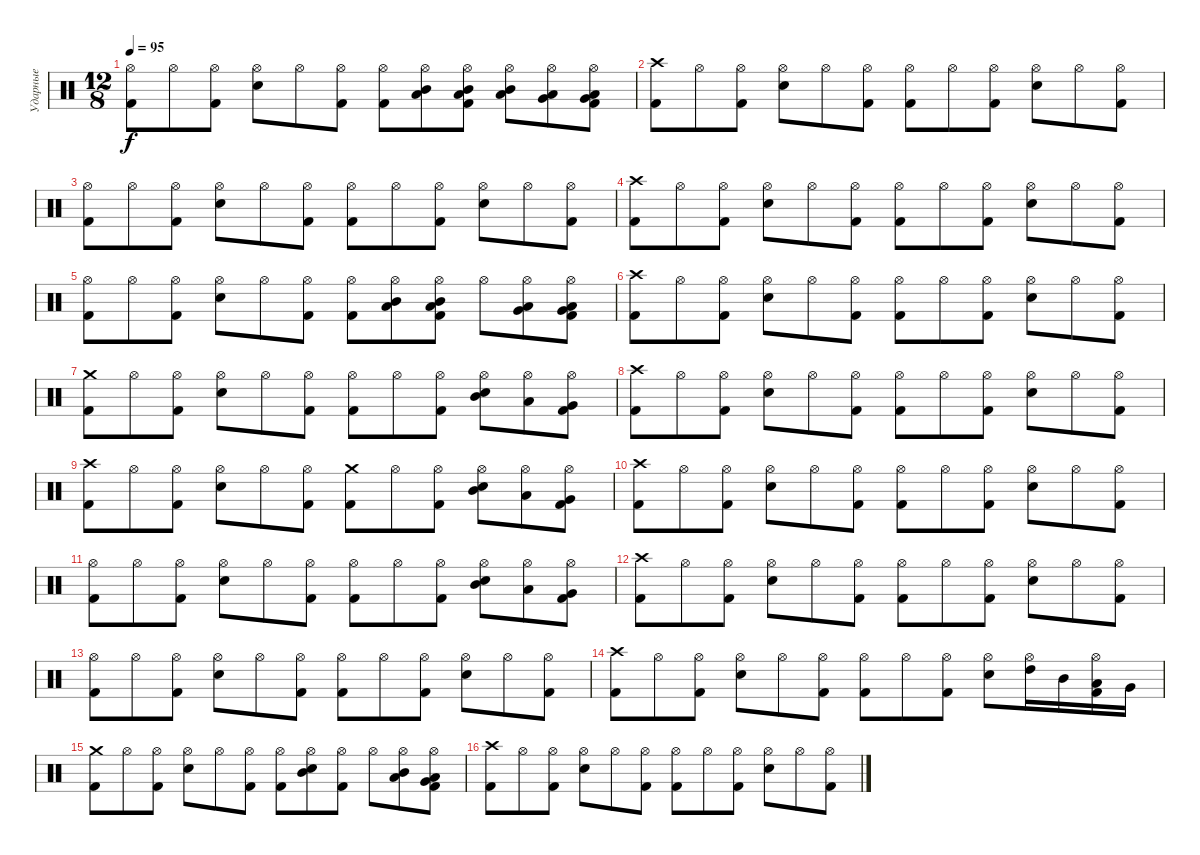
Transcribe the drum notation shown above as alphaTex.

\track ("Ударные" "Ударные") {instrument percussion}
\staff {score}
\articulation defaults
\ts (12 8)
\tempo 95
\clef neutral
\ks c
("Hi-Hat (open)" "Kick (hit) 2").8{dy f} "Hi-Hat (open)".8 ("Hi-Hat (open)" "Kick (hit) 2").8 ("Hi-Hat (open)" "Electric Snare (hit)").8 "Hi-Hat (open)".8 ("Hi-Hat (open)" "Kick (hit) 2").8 ("Hi-Hat (open)" "Kick (hit) 2").8 ("Hi-Hat (open)" "Mid Tom (hit)" "Low Tom (hit)").8 ("Hi-Hat (open)" "Mid Tom (hit)" "Low Tom (hit)" "Kick (hit) 2").8 ("Hi-Hat (open)" "Mid Tom (hit)" "Low Tom (hit)").8 ("Hi-Hat (open)" "Low Tom (hit)" "Very Low Tom (hit)").8 ("Hi-Hat (open)" "Very Low Tom (hit)" "Low Floor Tom (hit)" "Kick (hit) 2").8 |
("Crash high (hit)" "Kick (hit) 2").8 "Hi-Hat (open)".8 ("Hi-Hat (open)" "Kick (hit) 2").8 ("Hi-Hat (open)" "Electric Snare (hit)").8 "Hi-Hat (open)".8 ("Hi-Hat (open)" "Kick (hit) 2").8 ("Hi-Hat (open)" "Kick (hit) 2").8 "Hi-Hat (open)".8 ("Hi-Hat (open)" "Kick (hit) 2").8 ("Hi-Hat (open)" "Electric Snare (hit)").8 "Hi-Hat (open)".8 ("Hi-Hat (open)" "Kick (hit) 2").8 |
("Hi-Hat (open)" "Kick (hit) 2").8 "Hi-Hat (open)".8 ("Hi-Hat (open)" "Kick (hit) 2").8 ("Hi-Hat (open)" "Electric Snare (hit)").8 "Hi-Hat (open)".8 ("Hi-Hat (open)" "Kick (hit) 2").8 ("Hi-Hat (open)" "Kick (hit) 2").8 "Hi-Hat (open)".8 ("Hi-Hat (open)" "Kick (hit) 2").8 ("Hi-Hat (open)" "Electric Snare (hit)").8 "Hi-Hat (open)".8 ("Hi-Hat (open)" "Kick (hit) 2").8 |
("Crash high (hit)" "Kick (hit) 2").8 "Hi-Hat (open)".8 ("Hi-Hat (open)" "Kick (hit) 2").8 ("Hi-Hat (open)" "Electric Snare (hit)").8 "Hi-Hat (open)".8 ("Hi-Hat (open)" "Kick (hit) 2").8 ("Hi-Hat (open)" "Kick (hit) 2").8 "Hi-Hat (open)".8 ("Hi-Hat (open)" "Kick (hit) 2").8 ("Hi-Hat (open)" "Electric Snare (hit)").8 "Hi-Hat (open)".8 ("Hi-Hat (open)" "Kick (hit) 2").8 |
("Hi-Hat (open)" "Kick (hit) 2").8 "Hi-Hat (open)".8 ("Hi-Hat (open)" "Kick (hit) 2").8 ("Hi-Hat (open)" "Electric Snare (hit)").8 "Hi-Hat (open)".8 ("Hi-Hat (open)" "Kick (hit) 2").8 ("Hi-Hat (open)" "Kick (hit) 2").8 ("Hi-Hat (open)" "Mid Tom (hit)" "Low Tom (hit)").8 ("Hi-Hat (open)" "Mid Tom (hit)" "Low Tom (hit)" "Kick (hit) 2").8 "Hi-Hat (open)".8 ("Hi-Hat (open)" "Low Tom (hit)" "Very Low Tom (hit)").8 ("Hi-Hat (open)" "Very Low Tom (hit)" "Low Floor Tom (hit)" "Kick (hit) 2").8 |
("Crash high (hit)" "Kick (hit) 2").8 "Hi-Hat (open)".8 ("Hi-Hat (open)" "Kick (hit) 2").8 ("Hi-Hat (open)" "Electric Snare (hit)").8 "Hi-Hat (open)".8 ("Hi-Hat (open)" "Kick (hit) 2").8 ("Hi-Hat (open)" "Kick (hit) 2").8 "Hi-Hat (open)".8 ("Hi-Hat (open)" "Kick (hit) 2").8 ("Hi-Hat (open)" "Electric Snare (hit)").8 "Hi-Hat (open)".8 ("Hi-Hat (open)" "Kick (hit) 2").8 |
("Crash medium (hit)" "Kick (hit) 2").8 "Hi-Hat (open)".8 ("Hi-Hat (open)" "Kick (hit) 2").8 ("Hi-Hat (open)" "Electric Snare (hit)").8 "Hi-Hat (open)".8 ("Hi-Hat (open)" "Kick (hit) 2").8 ("Hi-Hat (open)" "Kick (hit) 2").8 "Hi-Hat (open)".8 ("Hi-Hat (open)" "Kick (hit) 2").8 ("Hi-Hat (open)" "Mid Tom (hit)" "Electric Snare (hit)").8 ("Hi-Hat (open)" "Low Tom (hit)").8 ("Hi-Hat (open)" "Very Low Tom (hit)" "Kick (hit) 2").8 |
("Crash high (hit)" "Kick (hit) 2").8 "Hi-Hat (open)".8 ("Hi-Hat (open)" "Kick (hit) 2").8 ("Hi-Hat (open)" "Electric Snare (hit)").8 "Hi-Hat (open)".8 ("Hi-Hat (open)" "Kick (hit) 2").8 ("Hi-Hat (open)" "Kick (hit) 2").8 "Hi-Hat (open)".8 ("Hi-Hat (open)" "Kick (hit) 2").8 ("Hi-Hat (open)" "Electric Snare (hit)").8 "Hi-Hat (open)".8 ("Hi-Hat (open)" "Kick (hit) 2").8 |
("Crash high (hit)" "Kick (hit) 2").8 "Hi-Hat (open)".8 ("Hi-Hat (open)" "Kick (hit) 2").8 ("Hi-Hat (open)" "Electric Snare (hit)").8 "Hi-Hat (open)".8 ("Hi-Hat (open)" "Kick (hit) 2").8 ("Crash medium (hit)" "Kick (hit) 2").8 "Hi-Hat (open)".8 ("Hi-Hat (open)" "Kick (hit) 2").8 ("Hi-Hat (open)" "Mid Tom (hit)" "Electric Snare (hit)").8 ("Hi-Hat (open)" "Low Tom (hit)").8 ("Hi-Hat (open)" "Very Low Tom (hit)" "Kick (hit) 2").8 |
("Crash high (hit)" "Kick (hit) 2").8 "Hi-Hat (open)".8 ("Hi-Hat (open)" "Kick (hit) 2").8 ("Hi-Hat (open)" "Electric Snare (hit)").8 "Hi-Hat (open)".8 ("Hi-Hat (open)" "Kick (hit) 2").8 ("Hi-Hat (open)" "Kick (hit) 2").8 "Hi-Hat (open)".8 ("Hi-Hat (open)" "Kick (hit) 2").8 ("Hi-Hat (open)" "Electric Snare (hit)").8 "Hi-Hat (open)".8 ("Hi-Hat (open)" "Kick (hit) 2").8 |
("Hi-Hat (open)" "Kick (hit) 2").8 "Hi-Hat (open)".8 ("Hi-Hat (open)" "Kick (hit) 2").8 ("Hi-Hat (open)" "Electric Snare (hit)").8 "Hi-Hat (open)".8 ("Hi-Hat (open)" "Kick (hit) 2").8 ("Hi-Hat (open)" "Kick (hit) 2").8 "Hi-Hat (open)".8 ("Hi-Hat (open)" "Kick (hit) 2").8 ("Hi-Hat (open)" "Mid Tom (hit)" "Electric Snare (hit)").8 ("Hi-Hat (open)" "Low Tom (hit)").8 ("Hi-Hat (open)" "Very Low Tom (hit)" "Kick (hit) 2").8 |
("Crash high (hit)" "Kick (hit) 2").8 "Hi-Hat (open)".8 ("Hi-Hat (open)" "Kick (hit) 2").8 ("Hi-Hat (open)" "Electric Snare (hit)").8 "Hi-Hat (open)".8 ("Hi-Hat (open)" "Kick (hit) 2").8 ("Hi-Hat (open)" "Kick (hit) 2").8 "Hi-Hat (open)".8 ("Hi-Hat (open)" "Kick (hit) 2").8 ("Hi-Hat (open)" "Electric Snare (hit)").8 "Hi-Hat (open)".8 ("Hi-Hat (open)" "Kick (hit) 2").8 |
("Hi-Hat (open)" "Kick (hit) 2").8 "Hi-Hat (open)".8 ("Hi-Hat (open)" "Kick (hit) 2").8 ("Hi-Hat (open)" "Electric Snare (hit)").8 "Hi-Hat (open)".8 ("Hi-Hat (open)" "Kick (hit) 2").8 ("Hi-Hat (open)" "Kick (hit) 2").8 "Hi-Hat (open)".8 ("Hi-Hat (open)" "Kick (hit) 2").8 ("Hi-Hat (open)" "Electric Snare (hit)").8 "Hi-Hat (open)".8 ("Hi-Hat (open)" "Kick (hit) 2").8 |
("Crash high (hit)" "Kick (hit) 2").8 "Hi-Hat (open)".8 ("Hi-Hat (open)" "Kick (hit) 2").8 ("Hi-Hat (open)" "Electric Snare (hit)").8 "Hi-Hat (open)".8 ("Hi-Hat (open)" "Kick (hit) 2").8 ("Hi-Hat (open)" "Kick (hit) 2").8 "Hi-Hat (open)".8 ("Hi-Hat (open)" "Kick (hit) 2").8 ("Hi-Hat (open)" "Electric Snare (hit)").8 ("Hi-Hat (open)" "High Tom (hit)").16 "Mid Tom (hit)".16 ("Hi-Hat (open)" "Low Tom (hit)" "Kick (hit) 2").16 "Very Low Tom (hit)".16 |
("Crash medium (hit)" "Kick (hit) 2").8 "Hi-Hat (open)".8 ("Hi-Hat (open)" "Kick (hit) 2").8 ("Hi-Hat (open)" "Electric Snare (hit)").8 "Hi-Hat (open)".8 ("Hi-Hat (open)" "Kick (hit) 2").8 ("Hi-Hat (open)" "Kick (hit) 2").8 ("Hi-Hat (open)" "Mid Tom (hit)" "Electric Snare (hit)").8 ("Hi-Hat (open)" "Kick (hit) 2").8 "Hi-Hat (open)".8 ("Hi-Hat (open)" "Mid Tom (hit)" "Low Tom (hit)").8 ("Hi-Hat (open)" "Low Tom (hit)" "Very Low Tom (hit)" "Kick (hit) 2").8 |
("Crash high (hit)" "Kick (hit) 2").8 "Hi-Hat (open)".8 ("Hi-Hat (open)" "Kick (hit) 2").8 ("Hi-Hat (open)" "Electric Snare (hit)").8 "Hi-Hat (open)".8 ("Hi-Hat (open)" "Kick (hit) 2").8 ("Hi-Hat (open)" "Kick (hit) 2").8 "Hi-Hat (open)".8 ("Hi-Hat (open)" "Kick (hit) 2").8 ("Hi-Hat (open)" "Electric Snare (hit)").8 "Hi-Hat (open)".8 ("Hi-Hat (open)" "Kick (hit) 2").8
